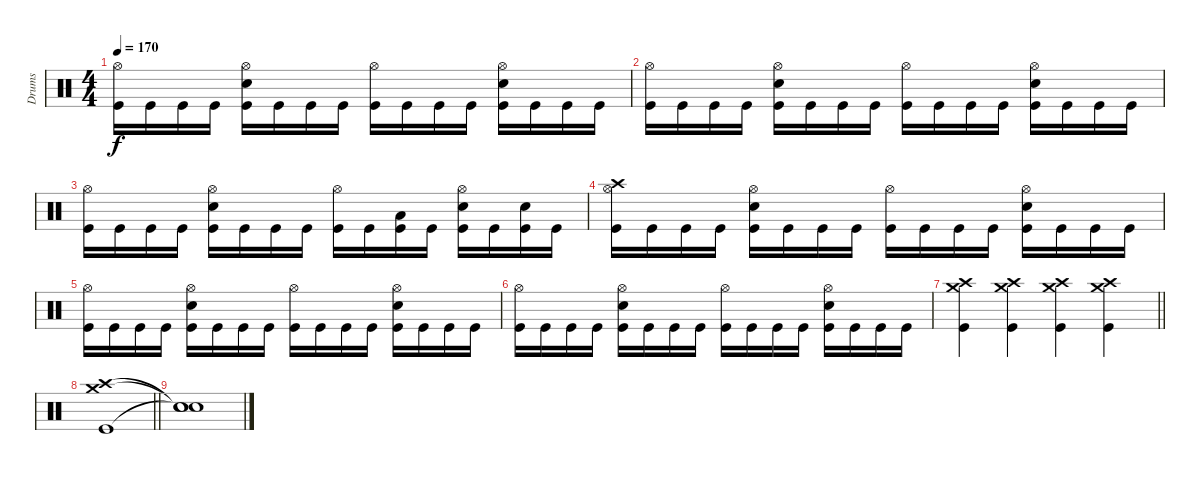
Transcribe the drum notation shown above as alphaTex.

\track ("Drums" "Drums") {instrument percussion}
\staff {score}
\articulation defaults
\ts (4 4)
\tempo 170
\clef neutral
\ks c
("Hi-Hat (open)" "Kick (hit)").16{dy f} "Kick (hit)".16 "Kick (hit)".16 "Kick (hit)".16 ("Hi-Hat (open)" "Snare (hit) 2" "Kick (hit)").16 "Kick (hit)".16 "Kick (hit)".16 "Kick (hit)".16 ("Hi-Hat (open)" "Kick (hit)").16 "Kick (hit)".16 "Kick (hit)".16 "Kick (hit)".16 ("Hi-Hat (open)" "Snare (hit) 2" "Kick (hit)").16 "Kick (hit)".16 "Kick (hit)".16 "Kick (hit)".16 |
("Hi-Hat (open)" "Kick (hit)").16 "Kick (hit)".16 "Kick (hit)".16 "Kick (hit)".16 ("Hi-Hat (open)" "Snare (hit) 2" "Kick (hit)").16 "Kick (hit)".16 "Kick (hit)".16 "Kick (hit)".16 ("Hi-Hat (open)" "Kick (hit)").16 "Kick (hit)".16 "Kick (hit)".16 "Kick (hit)".16 ("Hi-Hat (open)" "Snare (hit) 2" "Kick (hit)").16 "Kick (hit)".16 "Kick (hit)".16 "Kick (hit)".16 |
("Hi-Hat (open)" "Kick (hit)").16 "Kick (hit)".16 "Kick (hit)".16 "Kick (hit)".16 ("Hi-Hat (open)" "Snare (hit) 2" "Kick (hit)").16 "Kick (hit)".16 "Kick (hit)".16 "Kick (hit)".16 ("Hi-Hat (open)" "Kick (hit)").16 "Kick (hit)".16 ("Low Floor Tom (hit)" "Kick (hit)").16 "Kick (hit)".16 ("Hi-Hat (open)" "Snare (hit) 2" "Kick (hit)").16 "Kick (hit)".16 ("Snare (hit) 2" "Kick (hit)").16 "Kick (hit)".16 |
("Hi-Hat (open)" "Crash high (hit)" "Kick (hit)").16 "Kick (hit)".16 "Kick (hit)".16 "Kick (hit)".16 ("Hi-Hat (open)" "Snare (hit) 2" "Kick (hit)").16 "Kick (hit)".16 "Kick (hit)".16 "Kick (hit)".16 ("Hi-Hat (open)" "Kick (hit)").16 "Kick (hit)".16 "Kick (hit)".16 "Kick (hit)".16 ("Hi-Hat (open)" "Snare (hit) 2" "Kick (hit)").16 "Kick (hit)".16 "Kick (hit)".16 "Kick (hit)".16 |
("Hi-Hat (open)" "Kick (hit)").16 "Kick (hit)".16 "Kick (hit)".16 "Kick (hit)".16 ("Hi-Hat (open)" "Snare (hit) 2" "Kick (hit)").16 "Kick (hit)".16 "Kick (hit)".16 "Kick (hit)".16 ("Hi-Hat (open)" "Kick (hit)").16 "Kick (hit)".16 "Kick (hit)".16 "Kick (hit)".16 ("Hi-Hat (open)" "Snare (hit) 2" "Kick (hit)").16 "Kick (hit)".16 "Kick (hit)".16 "Kick (hit)".16 |
("Hi-Hat (open)" "Kick (hit)").16 "Kick (hit)".16 "Kick (hit)".16 "Kick (hit)".16 ("Hi-Hat (open)" "Snare (hit) 2" "Kick (hit)").16 "Kick (hit)".16 "Kick (hit)".16 "Kick (hit)".16 ("Hi-Hat (open)" "Kick (hit)").16 "Kick (hit)".16 "Kick (hit)".16 "Kick (hit)".16 ("Hi-Hat (open)" "Snare (hit) 2" "Kick (hit)").16 "Kick (hit)".16 "Kick (hit)".16 "Kick (hit)".16 |
\barLineRight lightlight
("Crash high (hit)" "Crash medium (hit)" "Kick (hit)").4 ("Crash high (hit)" "Crash medium (hit)" "Kick (hit)").4 ("Crash high (hit)" "Crash medium (hit)" "Kick (hit)").4 ("Crash high (hit)" "Crash medium (hit)" "Kick (hit)").4 |
\barLineRight lightlight
("Crash high (hit)" "Crash medium (hit)" "Kick (hit)").1 |
("Snare (hit)"{t} "Snare (hit)"{t} "Snare (hit)"{t}).1
